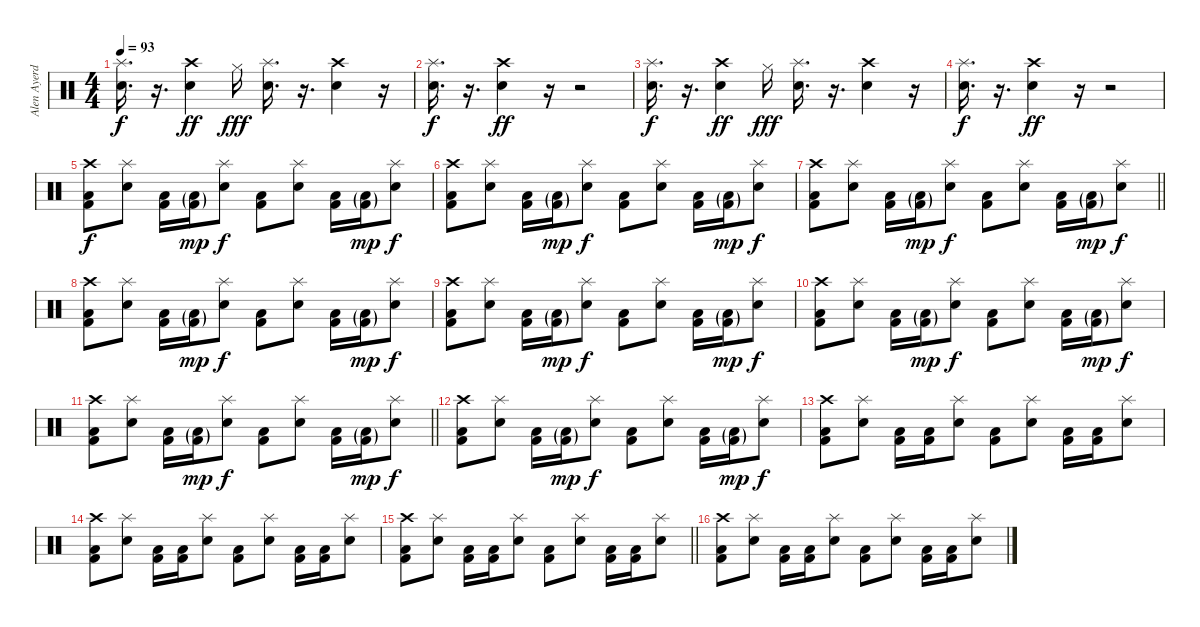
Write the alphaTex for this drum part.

\track ("Alen Ayerdi" "Alen Ayerd") {instrument percussion}
\staff {score}
\articulation defaults
\ts (4 4)
\tempo 93
\clef neutral
\ks c
("Splash (hit)" "Electric Snare (hit)").16{d dy f} r.16{d} ("Crash high (hit)" "Electric Snare (hit)").4{dy ff} "Hi-Hat (closed)".16{dy fff} ("Splash (hit)" "Electric Snare (hit)").16{d} r.16{d} ("Crash high (hit)" "Electric Snare (hit)").4 r.16 |
("Splash (hit)" "Electric Snare (hit)").16{d dy f} r.16{d} ("Crash high (hit)" "Electric Snare (hit)").4{dy ff} r.16 r.2 |
("Splash (hit)" "Electric Snare (hit)").16{d dy f} r.16{d} ("Crash high (hit)" "Electric Snare (hit)").4{dy ff} "Hi-Hat (closed)".16{dy fff} ("Splash (hit)" "Electric Snare (hit)").16{d} r.16{d} ("Crash high (hit)" "Electric Snare (hit)").4 r.16 |
("Splash (hit)" "Electric Snare (hit)").16{d dy f} r.16{d} ("Crash high (hit)" "Electric Snare (hit)").4{dy ff} r.16 r.2 |
("Crash high (hit)" "Low Floor Tom (hit)" "Kick (hit) 2").8{dy f} ("Splash (hit)" "Electric Snare (hit)").8 ("Low Floor Tom (hit)" "Kick (hit) 2").16 ("Low Floor Tom (hit)"{g} "Kick (hit) 2"{g}).16{dy mp} ("Splash (hit)" "Electric Snare (hit)").8{dy f} ("Low Floor Tom (hit)" "Kick (hit) 2").8 ("Splash (hit)" "Electric Snare (hit)").8 ("Low Floor Tom (hit)" "Kick (hit) 2").16 ("Low Floor Tom (hit)"{g} "Kick (hit) 2"{g}).16{dy mp} ("Splash (hit)" "Electric Snare (hit)").8{dy f} |
("Crash high (hit)" "Low Floor Tom (hit)" "Kick (hit) 2").8 ("Splash (hit)" "Electric Snare (hit)").8 ("Low Floor Tom (hit)" "Kick (hit) 2").16 ("Low Floor Tom (hit)"{g} "Kick (hit) 2"{g}).16{dy mp} ("Splash (hit)" "Electric Snare (hit)").8{dy f} ("Low Floor Tom (hit)" "Kick (hit) 2").8 ("Splash (hit)" "Electric Snare (hit)").8 ("Low Floor Tom (hit)" "Kick (hit) 2").16 ("Low Floor Tom (hit)"{g} "Kick (hit) 2"{g}).16{dy mp} ("Splash (hit)" "Electric Snare (hit)").8{dy f} |
\barLineRight lightlight
("Crash high (hit)" "Low Floor Tom (hit)" "Kick (hit) 2").8 ("Splash (hit)" "Electric Snare (hit)").8 ("Low Floor Tom (hit)" "Kick (hit) 2").16 ("Low Floor Tom (hit)"{g} "Kick (hit) 2"{g}).16{dy mp} ("Splash (hit)" "Electric Snare (hit)").8{dy f} ("Low Floor Tom (hit)" "Kick (hit) 2").8 ("Splash (hit)" "Electric Snare (hit)").8 ("Low Floor Tom (hit)" "Kick (hit) 2").16 ("Low Floor Tom (hit)"{g} "Kick (hit) 2"{g}).16{dy mp} ("Splash (hit)" "Electric Snare (hit)").8{dy f} |
("Crash high (hit)" "Low Floor Tom (hit)" "Kick (hit) 2").8 ("Splash (hit)" "Electric Snare (hit)").8 ("Low Floor Tom (hit)" "Kick (hit) 2").16 ("Low Floor Tom (hit)"{g} "Kick (hit) 2"{g}).16{dy mp} ("Splash (hit)" "Electric Snare (hit)").8{dy f} ("Low Floor Tom (hit)" "Kick (hit) 2").8 ("Splash (hit)" "Electric Snare (hit)").8 ("Low Floor Tom (hit)" "Kick (hit) 2").16 ("Low Floor Tom (hit)"{g} "Kick (hit) 2"{g}).16{dy mp} ("Splash (hit)" "Electric Snare (hit)").8{dy f} |
("Crash high (hit)" "Low Floor Tom (hit)" "Kick (hit) 2").8 ("Splash (hit)" "Electric Snare (hit)").8 ("Low Floor Tom (hit)" "Kick (hit) 2").16 ("Low Floor Tom (hit)"{g} "Kick (hit) 2"{g}).16{dy mp} ("Splash (hit)" "Electric Snare (hit)").8{dy f} ("Low Floor Tom (hit)" "Kick (hit) 2").8 ("Splash (hit)" "Electric Snare (hit)").8 ("Low Floor Tom (hit)" "Kick (hit) 2").16 ("Low Floor Tom (hit)"{g} "Kick (hit) 2"{g}).16{dy mp} ("Splash (hit)" "Electric Snare (hit)").8{dy f} |
("Crash high (hit)" "Low Floor Tom (hit)" "Kick (hit) 2").8 ("Splash (hit)" "Electric Snare (hit)").8 ("Low Floor Tom (hit)" "Kick (hit) 2").16 ("Low Floor Tom (hit)"{g} "Kick (hit) 2"{g}).16{dy mp} ("Splash (hit)" "Electric Snare (hit)").8{dy f} ("Low Floor Tom (hit)" "Kick (hit) 2").8 ("Splash (hit)" "Electric Snare (hit)").8 ("Low Floor Tom (hit)" "Kick (hit) 2").16 ("Low Floor Tom (hit)"{g} "Kick (hit) 2"{g}).16{dy mp} ("Splash (hit)" "Electric Snare (hit)").8{dy f} |
\barLineRight lightlight
("Crash high (hit)" "Low Floor Tom (hit)" "Kick (hit) 2").8 ("Splash (hit)" "Electric Snare (hit)").8 ("Low Floor Tom (hit)" "Kick (hit) 2").16 ("Low Floor Tom (hit)"{g} "Kick (hit) 2"{g}).16{dy mp} ("Splash (hit)" "Electric Snare (hit)").8{dy f} ("Low Floor Tom (hit)" "Kick (hit) 2").8 ("Splash (hit)" "Electric Snare (hit)").8 ("Low Floor Tom (hit)" "Kick (hit) 2").16 ("Low Floor Tom (hit)"{g} "Kick (hit) 2"{g}).16{dy mp} ("Splash (hit)" "Electric Snare (hit)").8{dy f} |
("Crash high (hit)" "Low Floor Tom (hit)" "Kick (hit) 2").8 ("Splash (hit)" "Electric Snare (hit)").8 ("Low Floor Tom (hit)" "Kick (hit) 2").16 ("Low Floor Tom (hit)"{g} "Kick (hit) 2"{g}).16{dy mp} ("Splash (hit)" "Electric Snare (hit)").8{dy f} ("Low Floor Tom (hit)" "Kick (hit) 2").8 ("Splash (hit)" "Electric Snare (hit)").8 ("Low Floor Tom (hit)" "Kick (hit) 2").16 ("Low Floor Tom (hit)"{g} "Kick (hit) 2"{g}).16{dy mp} ("Splash (hit)" "Electric Snare (hit)").8{dy f} |
("Crash high (hit)" "Low Floor Tom (hit)" "Kick (hit) 2").8 ("Splash (hit)" "Electric Snare (hit)").8 ("Low Floor Tom (hit)" "Kick (hit) 2").16 ("Low Floor Tom (hit)" "Kick (hit) 2").16 ("Splash (hit)" "Electric Snare (hit)").8 ("Low Floor Tom (hit)" "Kick (hit) 2").8 ("Splash (hit)" "Electric Snare (hit)").8 ("Low Floor Tom (hit)" "Kick (hit) 2").16 ("Low Floor Tom (hit)" "Kick (hit) 2").16 ("Splash (hit)" "Electric Snare (hit)").8 |
("Crash high (hit)" "Low Floor Tom (hit)" "Kick (hit) 2").8 ("Splash (hit)" "Electric Snare (hit)").8 ("Low Floor Tom (hit)" "Kick (hit) 2").16 ("Low Floor Tom (hit)" "Kick (hit) 2").16 ("Splash (hit)" "Electric Snare (hit)").8 ("Low Floor Tom (hit)" "Kick (hit) 2").8 ("Splash (hit)" "Electric Snare (hit)").8 ("Low Floor Tom (hit)" "Kick (hit) 2").16 ("Low Floor Tom (hit)" "Kick (hit) 2").16 ("Splash (hit)" "Electric Snare (hit)").8 |
\barLineRight lightlight
("Crash high (hit)" "Low Floor Tom (hit)" "Kick (hit) 2").8 ("Splash (hit)" "Electric Snare (hit)").8 ("Low Floor Tom (hit)" "Kick (hit) 2").16 ("Low Floor Tom (hit)" "Kick (hit) 2").16 ("Splash (hit)" "Electric Snare (hit)").8 ("Low Floor Tom (hit)" "Kick (hit) 2").8 ("Splash (hit)" "Electric Snare (hit)").8 ("Low Floor Tom (hit)" "Kick (hit) 2").16 ("Low Floor Tom (hit)" "Kick (hit) 2").16 ("Splash (hit)" "Electric Snare (hit)").8 |
("Crash high (hit)" "Low Floor Tom (hit)" "Kick (hit) 2").8 ("Splash (hit)" "Electric Snare (hit)").8 ("Low Floor Tom (hit)" "Kick (hit) 2").16 ("Low Floor Tom (hit)" "Kick (hit) 2").16 ("Splash (hit)" "Electric Snare (hit)").8 ("Low Floor Tom (hit)" "Kick (hit) 2").8 ("Splash (hit)" "Electric Snare (hit)").8 ("Low Floor Tom (hit)" "Kick (hit) 2").16 ("Low Floor Tom (hit)" "Kick (hit) 2").16 ("Splash (hit)" "Electric Snare (hit)").8
